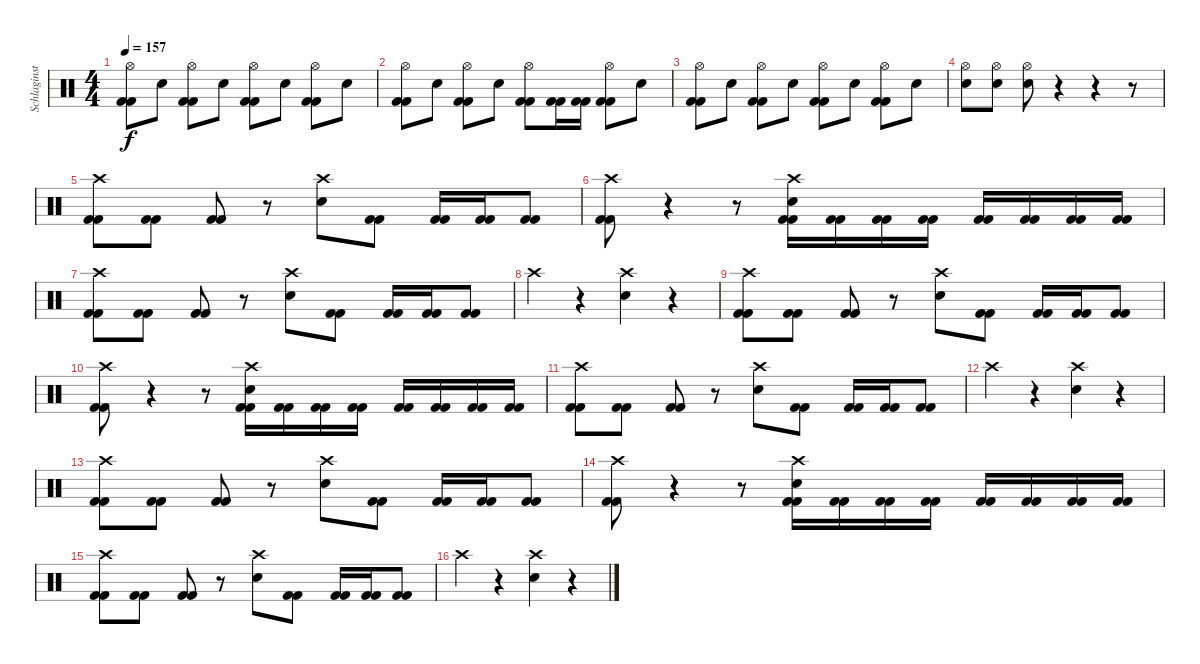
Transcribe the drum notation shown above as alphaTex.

\track ("Schlaginstrumente - Auswahl" "Schlaginst") {instrument percussion}
\staff {score}
\articulation defaults
\ts (4 4)
\tempo 157
\clef neutral
\ks c
("Hi-Hat (open)" "Kick (hit) 2" "Kick (hit) 2").8{dy f} "Electric Snare (hit)".8 ("Hi-Hat (open)" "Kick (hit) 2" "Kick (hit) 2").8 "Electric Snare (hit)".8 ("Hi-Hat (open)" "Kick (hit) 2" "Kick (hit) 2").8 "Electric Snare (hit)".8 ("Hi-Hat (open)" "Kick (hit) 2" "Kick (hit) 2").8 "Electric Snare (hit)".8 |
("Hi-Hat (open)" "Kick (hit) 2" "Kick (hit) 2").8 "Electric Snare (hit)".8 ("Hi-Hat (open)" "Kick (hit) 2" "Kick (hit) 2").8 "Electric Snare (hit)".8 ("Hi-Hat (open)" "Kick (hit) 2" "Kick (hit) 2").8 ("Kick (hit) 2" "Kick (hit) 2").16 ("Kick (hit) 2" "Kick (hit) 2").16 ("Hi-Hat (open)" "Kick (hit) 2" "Kick (hit) 2").8 "Electric Snare (hit)".8 |
("Hi-Hat (open)" "Kick (hit) 2" "Kick (hit) 2").8 "Electric Snare (hit)".8 ("Hi-Hat (open)" "Kick (hit) 2" "Kick (hit) 2").8 "Electric Snare (hit)".8 ("Hi-Hat (open)" "Kick (hit) 2" "Kick (hit) 2").8 "Electric Snare (hit)".8 ("Hi-Hat (open)" "Kick (hit) 2" "Kick (hit) 2").8 "Electric Snare (hit)".8 |
("Hi-Hat (open)" "Electric Snare (hit)").8 ("Hi-Hat (open)" "Electric Snare (hit)").8 ("Hi-Hat (open)" "Electric Snare (hit)").8 r.4 r.4 r.8 |
("Crash high (hit)" "Kick (hit) 2" "Kick (hit) 2").8 ("Kick (hit) 2" "Kick (hit) 2").8 ("Kick (hit) 2" "Kick (hit) 2").8 r.8 ("Crash high (hit)" "Electric Snare (hit)").8 ("Kick (hit) 2" "Kick (hit) 2").8 ("Kick (hit) 2" "Kick (hit) 2").16 ("Kick (hit) 2" "Kick (hit) 2").16 ("Kick (hit) 2" "Kick (hit) 2").8 |
("Crash high (hit)" "Kick (hit) 2" "Kick (hit) 2").8 r.4 r.8 ("Crash high (hit)" "Electric Snare (hit)" "Kick (hit) 2" "Kick (hit) 2").16 ("Kick (hit) 2" "Kick (hit) 2").16 ("Kick (hit) 2" "Kick (hit) 2").16 ("Kick (hit) 2" "Kick (hit) 2").16 ("Kick (hit) 2" "Kick (hit) 2").16 ("Kick (hit) 2" "Kick (hit) 2").16 ("Kick (hit) 2" "Kick (hit) 2").16 ("Kick (hit) 2" "Kick (hit) 2").16 |
("Crash high (hit)" "Kick (hit) 2" "Kick (hit) 2").8 ("Kick (hit) 2" "Kick (hit) 2").8 ("Kick (hit) 2" "Kick (hit) 2").8 r.8 ("Crash high (hit)" "Electric Snare (hit)").8 ("Kick (hit) 2" "Kick (hit) 2").8 ("Kick (hit) 2" "Kick (hit) 2").16 ("Kick (hit) 2" "Kick (hit) 2").16 ("Kick (hit) 2" "Kick (hit) 2").8 |
"Crash high (hit)".4 r.4 ("Crash high (hit)" "Electric Snare (hit)").4 r.4 |
("Crash high (hit)" "Kick (hit) 2" "Kick (hit) 2").8 ("Kick (hit) 2" "Kick (hit) 2").8 ("Kick (hit) 2" "Kick (hit) 2").8 r.8 ("Crash high (hit)" "Electric Snare (hit)").8 ("Kick (hit) 2" "Kick (hit) 2").8 ("Kick (hit) 2" "Kick (hit) 2").16 ("Kick (hit) 2" "Kick (hit) 2").16 ("Kick (hit) 2" "Kick (hit) 2").8 |
("Crash high (hit)" "Kick (hit) 2" "Kick (hit) 2").8 r.4 r.8 ("Crash high (hit)" "Electric Snare (hit)" "Kick (hit) 2" "Kick (hit) 2").16 ("Kick (hit) 2" "Kick (hit) 2").16 ("Kick (hit) 2" "Kick (hit) 2").16 ("Kick (hit) 2" "Kick (hit) 2").16 ("Kick (hit) 2" "Kick (hit) 2").16 ("Kick (hit) 2" "Kick (hit) 2").16 ("Kick (hit) 2" "Kick (hit) 2").16 ("Kick (hit) 2" "Kick (hit) 2").16 |
("Crash high (hit)" "Kick (hit) 2" "Kick (hit) 2").8 ("Kick (hit) 2" "Kick (hit) 2").8 ("Kick (hit) 2" "Kick (hit) 2").8 r.8 ("Crash high (hit)" "Electric Snare (hit)").8 ("Kick (hit) 2" "Kick (hit) 2").8 ("Kick (hit) 2" "Kick (hit) 2").16 ("Kick (hit) 2" "Kick (hit) 2").16 ("Kick (hit) 2" "Kick (hit) 2").8 |
"Crash high (hit)".4 r.4 ("Crash high (hit)" "Electric Snare (hit)").4 r.4 |
("Crash high (hit)" "Kick (hit) 2" "Kick (hit) 2").8 ("Kick (hit) 2" "Kick (hit) 2").8 ("Kick (hit) 2" "Kick (hit) 2").8 r.8 ("Crash high (hit)" "Electric Snare (hit)").8 ("Kick (hit) 2" "Kick (hit) 2").8 ("Kick (hit) 2" "Kick (hit) 2").16 ("Kick (hit) 2" "Kick (hit) 2").16 ("Kick (hit) 2" "Kick (hit) 2").8 |
("Crash high (hit)" "Kick (hit) 2" "Kick (hit) 2").8 r.4 r.8 ("Crash high (hit)" "Electric Snare (hit)" "Kick (hit) 2" "Kick (hit) 2").16 ("Kick (hit) 2" "Kick (hit) 2").16 ("Kick (hit) 2" "Kick (hit) 2").16 ("Kick (hit) 2" "Kick (hit) 2").16 ("Kick (hit) 2" "Kick (hit) 2").16 ("Kick (hit) 2" "Kick (hit) 2").16 ("Kick (hit) 2" "Kick (hit) 2").16 ("Kick (hit) 2" "Kick (hit) 2").16 |
("Crash high (hit)" "Kick (hit) 2" "Kick (hit) 2").8 ("Kick (hit) 2" "Kick (hit) 2").8 ("Kick (hit) 2" "Kick (hit) 2").8 r.8 ("Crash high (hit)" "Electric Snare (hit)").8 ("Kick (hit) 2" "Kick (hit) 2").8 ("Kick (hit) 2" "Kick (hit) 2").16 ("Kick (hit) 2" "Kick (hit) 2").16 ("Kick (hit) 2" "Kick (hit) 2").8 |
"Crash high (hit)".4 r.4 ("Crash high (hit)" "Electric Snare (hit)").4 r.4
